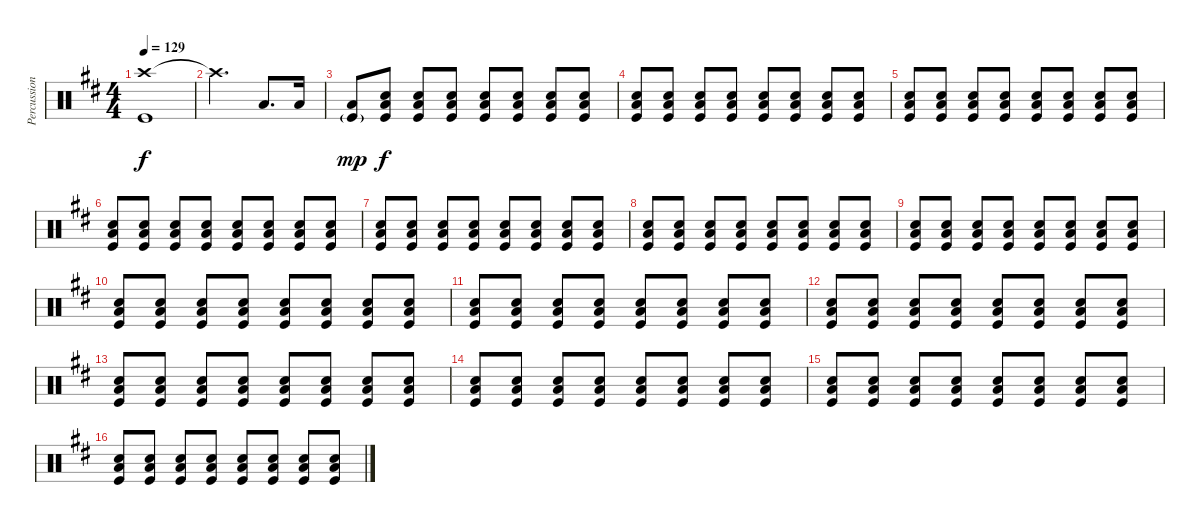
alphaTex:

\track ("Percussion" "Percussion") {instrument percussion}
\staff {score}
\articulation defaults
\ts (4 4)
\tempo 129
\clef neutral
\ks bminor
("Crash high (hit)" "Kick (hit)").1{dy f} |
"Crash high (hit)"{t}.2{d} "Low Floor Tom (hit)".8{d} "Low Floor Tom (hit)".16 |
("Low Floor Tom (hit)" "Kick (hit)"{g}).8{dy mp} ("Snare (hit) 2" "Low Floor Tom (hit)" "Kick (hit)").8{dy f volume 3} ("Snare (hit) 2" "Low Floor Tom (hit)" "Kick (hit)").8{volume 4} ("Snare (hit) 2" "Low Floor Tom (hit)" "Kick (hit)").8 ("Snare (hit) 2" "Low Floor Tom (hit)" "Kick (hit)").8 ("Snare (hit) 2" "Low Floor Tom (hit)" "Kick (hit)").8 ("Snare (hit) 2" "Low Floor Tom (hit)" "Kick (hit)").8 ("Snare (hit) 2" "Low Floor Tom (hit)" "Kick (hit)").8 |
("Snare (hit) 2" "Low Floor Tom (hit)" "Kick (hit)").8 ("Snare (hit) 2" "Low Floor Tom (hit)" "Kick (hit)").8 ("Snare (hit) 2" "Low Floor Tom (hit)" "Kick (hit)").8 ("Snare (hit) 2" "Low Floor Tom (hit)" "Kick (hit)").8 ("Snare (hit) 2" "Low Floor Tom (hit)" "Kick (hit)").8 ("Snare (hit) 2" "Low Floor Tom (hit)" "Kick (hit)").8 ("Snare (hit) 2" "Low Floor Tom (hit)" "Kick (hit)").8 ("Snare (hit) 2" "Low Floor Tom (hit)" "Kick (hit)").8 |
("Snare (hit) 2" "Low Floor Tom (hit)" "Kick (hit)").8 ("Snare (hit) 2" "Low Floor Tom (hit)" "Kick (hit)").8 ("Snare (hit) 2" "Low Floor Tom (hit)" "Kick (hit)").8 ("Snare (hit) 2" "Low Floor Tom (hit)" "Kick (hit)").8 ("Snare (hit) 2" "Low Floor Tom (hit)" "Kick (hit)").8 ("Snare (hit) 2" "Low Floor Tom (hit)" "Kick (hit)").8 ("Snare (hit) 2" "Low Floor Tom (hit)" "Kick (hit)").8 ("Snare (hit) 2" "Low Floor Tom (hit)" "Kick (hit)").8 |
("Snare (hit) 2" "Low Floor Tom (hit)" "Kick (hit)").8 ("Snare (hit) 2" "Low Floor Tom (hit)" "Kick (hit)").8 ("Snare (hit) 2" "Low Floor Tom (hit)" "Kick (hit)").8 ("Snare (hit) 2" "Low Floor Tom (hit)" "Kick (hit)").8 ("Snare (hit) 2" "Low Floor Tom (hit)" "Kick (hit)").8 ("Snare (hit) 2" "Low Floor Tom (hit)" "Kick (hit)").8 ("Snare (hit) 2" "Low Floor Tom (hit)" "Kick (hit)").8 ("Snare (hit) 2" "Low Floor Tom (hit)" "Kick (hit)").8 |
("Snare (hit) 2" "Low Floor Tom (hit)" "Kick (hit)").8{volume 5} ("Snare (hit) 2" "Low Floor Tom (hit)" "Kick (hit)").8 ("Snare (hit) 2" "Low Floor Tom (hit)" "Kick (hit)").8 ("Snare (hit) 2" "Low Floor Tom (hit)" "Kick (hit)").8 ("Snare (hit) 2" "Low Floor Tom (hit)" "Kick (hit)").8 ("Snare (hit) 2" "Low Floor Tom (hit)" "Kick (hit)").8 ("Snare (hit) 2" "Low Floor Tom (hit)" "Kick (hit)").8 ("Snare (hit) 2" "Low Floor Tom (hit)" "Kick (hit)").8 |
("Snare (hit) 2" "Low Floor Tom (hit)" "Kick (hit)").8 ("Snare (hit) 2" "Low Floor Tom (hit)" "Kick (hit)").8 ("Snare (hit) 2" "Low Floor Tom (hit)" "Kick (hit)").8 ("Snare (hit) 2" "Low Floor Tom (hit)" "Kick (hit)").8 ("Snare (hit) 2" "Low Floor Tom (hit)" "Kick (hit)").8 ("Snare (hit) 2" "Low Floor Tom (hit)" "Kick (hit)").8 ("Snare (hit) 2" "Low Floor Tom (hit)" "Kick (hit)").8 ("Snare (hit) 2" "Low Floor Tom (hit)" "Kick (hit)").8 |
("Snare (hit) 2" "Low Floor Tom (hit)" "Kick (hit)").8 ("Snare (hit) 2" "Low Floor Tom (hit)" "Kick (hit)").8 ("Snare (hit) 2" "Low Floor Tom (hit)" "Kick (hit)").8 ("Snare (hit) 2" "Low Floor Tom (hit)" "Kick (hit)").8 ("Snare (hit) 2" "Low Floor Tom (hit)" "Kick (hit)").8 ("Snare (hit) 2" "Low Floor Tom (hit)" "Kick (hit)").8 ("Snare (hit) 2" "Low Floor Tom (hit)" "Kick (hit)").8 ("Snare (hit) 2" "Low Floor Tom (hit)" "Kick (hit)").8 |
("Snare (hit) 2" "Low Floor Tom (hit)" "Kick (hit)").8 ("Snare (hit) 2" "Low Floor Tom (hit)" "Kick (hit)").8 ("Snare (hit) 2" "Low Floor Tom (hit)" "Kick (hit)").8 ("Snare (hit) 2" "Low Floor Tom (hit)" "Kick (hit)").8 ("Snare (hit) 2" "Low Floor Tom (hit)" "Kick (hit)").8 ("Snare (hit) 2" "Low Floor Tom (hit)" "Kick (hit)").8 ("Snare (hit) 2" "Low Floor Tom (hit)" "Kick (hit)").8 ("Snare (hit) 2" "Low Floor Tom (hit)" "Kick (hit)").8 |
("Snare (hit) 2" "Low Floor Tom (hit)" "Kick (hit)").8{volume 6} ("Snare (hit) 2" "Low Floor Tom (hit)" "Kick (hit)").8 ("Snare (hit) 2" "Low Floor Tom (hit)" "Kick (hit)").8 ("Snare (hit) 2" "Low Floor Tom (hit)" "Kick (hit)").8 ("Snare (hit) 2" "Low Floor Tom (hit)" "Kick (hit)").8 ("Snare (hit) 2" "Low Floor Tom (hit)" "Kick (hit)").8 ("Snare (hit) 2" "Low Floor Tom (hit)" "Kick (hit)").8 ("Snare (hit) 2" "Low Floor Tom (hit)" "Kick (hit)").8 |
("Snare (hit) 2" "Low Floor Tom (hit)" "Kick (hit)").8 ("Snare (hit) 2" "Low Floor Tom (hit)" "Kick (hit)").8 ("Snare (hit) 2" "Low Floor Tom (hit)" "Kick (hit)").8 ("Snare (hit) 2" "Low Floor Tom (hit)" "Kick (hit)").8 ("Snare (hit) 2" "Low Floor Tom (hit)" "Kick (hit)").8 ("Snare (hit) 2" "Low Floor Tom (hit)" "Kick (hit)").8 ("Snare (hit) 2" "Low Floor Tom (hit)" "Kick (hit)").8 ("Snare (hit) 2" "Low Floor Tom (hit)" "Kick (hit)").8 |
("Snare (hit) 2" "Low Floor Tom (hit)" "Kick (hit)").8{volume 7} ("Snare (hit) 2" "Low Floor Tom (hit)" "Kick (hit)").8 ("Snare (hit) 2" "Low Floor Tom (hit)" "Kick (hit)").8 ("Snare (hit) 2" "Low Floor Tom (hit)" "Kick (hit)").8 ("Snare (hit) 2" "Low Floor Tom (hit)" "Kick (hit)").8 ("Snare (hit) 2" "Low Floor Tom (hit)" "Kick (hit)").8 ("Snare (hit) 2" "Low Floor Tom (hit)" "Kick (hit)").8 ("Snare (hit) 2" "Low Floor Tom (hit)" "Kick (hit)").8 |
("Snare (hit) 2" "Low Floor Tom (hit)" "Kick (hit)").8 ("Snare (hit) 2" "Low Floor Tom (hit)" "Kick (hit)").8 ("Snare (hit) 2" "Low Floor Tom (hit)" "Kick (hit)").8 ("Snare (hit) 2" "Low Floor Tom (hit)" "Kick (hit)").8 ("Snare (hit) 2" "Low Floor Tom (hit)" "Kick (hit)").8 ("Snare (hit) 2" "Low Floor Tom (hit)" "Kick (hit)").8 ("Snare (hit) 2" "Low Floor Tom (hit)" "Kick (hit)").8 ("Snare (hit) 2" "Low Floor Tom (hit)" "Kick (hit)").8 |
("Snare (hit) 2" "Low Floor Tom (hit)" "Kick (hit)").8 ("Snare (hit) 2" "Low Floor Tom (hit)" "Kick (hit)").8 ("Snare (hit) 2" "Low Floor Tom (hit)" "Kick (hit)").8 ("Snare (hit) 2" "Low Floor Tom (hit)" "Kick (hit)").8 ("Snare (hit) 2" "Low Floor Tom (hit)" "Kick (hit)").8 ("Snare (hit) 2" "Low Floor Tom (hit)" "Kick (hit)").8 ("Snare (hit) 2" "Low Floor Tom (hit)" "Kick (hit)").8 ("Snare (hit) 2" "Low Floor Tom (hit)" "Kick (hit)").8 |
("Snare (hit) 2" "Low Floor Tom (hit)" "Kick (hit)").8 ("Snare (hit) 2" "Low Floor Tom (hit)" "Kick (hit)").8 ("Snare (hit) 2" "Low Floor Tom (hit)" "Kick (hit)").8 ("Snare (hit) 2" "Low Floor Tom (hit)" "Kick (hit)").8 ("Snare (hit) 2" "Low Floor Tom (hit)" "Kick (hit)").8 ("Snare (hit) 2" "Low Floor Tom (hit)" "Kick (hit)").8 ("Snare (hit) 2" "Low Floor Tom (hit)" "Kick (hit)").8 ("Snare (hit) 2" "Low Floor Tom (hit)" "Kick (hit)").8
